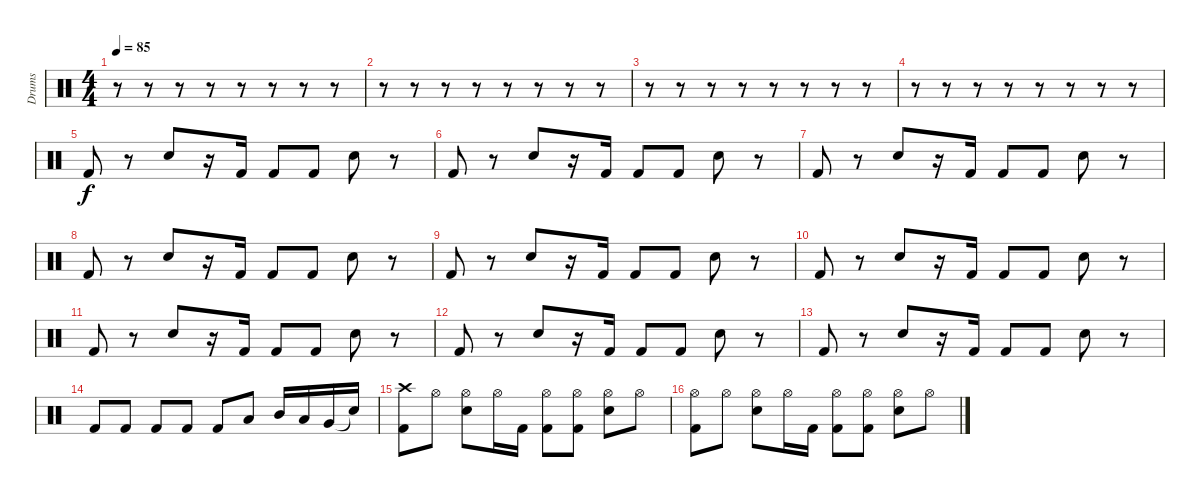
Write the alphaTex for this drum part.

\track ("Drums" "Drums") {instrument percussion}
\staff {score}
\articulation defaults
\ts (4 4)
\tempo 85
\clef neutral
\ks c
r.8{dy f} r.8 r.8 r.8 r.8 r.8 r.8 r.8 |
r.8 r.8 r.8 r.8 r.8 r.8 r.8 r.8 |
r.8 r.8 r.8 r.8 r.8 r.8 r.8 r.8 |
r.8 r.8 r.8 r.8 r.8 r.8 r.8 r.8 |
"Kick (hit) 2".8 r.8 "Snare (hit) 2".8 r.16 "Kick (hit) 2".16 "Kick (hit) 2".8 "Kick (hit) 2".8 "Snare (hit) 2".8 r.8 |
"Kick (hit) 2".8 r.8 "Snare (hit) 2".8 r.16 "Kick (hit) 2".16 "Kick (hit) 2".8 "Kick (hit) 2".8 "Snare (hit) 2".8 r.8 |
"Kick (hit) 2".8 r.8 "Snare (hit) 2".8 r.16 "Kick (hit) 2".16 "Kick (hit) 2".8 "Kick (hit) 2".8 "Snare (hit) 2".8 r.8 |
"Kick (hit) 2".8 r.8 "Snare (hit) 2".8 r.16 "Kick (hit) 2".16 "Kick (hit) 2".8 "Kick (hit) 2".8 "Snare (hit) 2".8 r.8 |
"Kick (hit) 2".8 r.8 "Snare (hit) 2".8 r.16 "Kick (hit) 2".16 "Kick (hit) 2".8 "Kick (hit) 2".8 "Snare (hit) 2".8 r.8 |
"Kick (hit) 2".8 r.8 "Snare (hit) 2".8 r.16 "Kick (hit) 2".16 "Kick (hit) 2".8 "Kick (hit) 2".8 "Snare (hit) 2".8 r.8 |
"Kick (hit) 2".8 r.8 "Snare (hit) 2".8 r.16 "Kick (hit) 2".16 "Kick (hit) 2".8 "Kick (hit) 2".8 "Snare (hit) 2".8 r.8 |
"Kick (hit) 2".8 r.8 "Snare (hit) 2".8 r.16 "Kick (hit) 2".16 "Kick (hit) 2".8 "Kick (hit) 2".8 "Snare (hit) 2".8 r.8 |
"Kick (hit) 2".8 r.8 "Snare (hit) 2".8 r.16 "Kick (hit) 2".16 "Kick (hit) 2".8 "Kick (hit) 2".8 "Snare (hit) 2".8 r.8 |
"Kick (hit) 2".8 "Kick (hit) 2".8 "Kick (hit) 2".8 "Kick (hit) 2".8 "Kick (hit) 2".8 "Low Tom (hit)".8 "Mid Tom (hit)".16 "Low Tom (hit)".16 "Very Low Tom (hit)".16 "Snare (hit)"{t}.16 |
("Crash high (hit)" "Kick (hit) 2").8 "Hi-Hat (open)".8 ("Hi-Hat (open)" "Snare (hit) 2").8 "Hi-Hat (open)".16 "Kick (hit) 2".16 ("Hi-Hat (open)" "Kick (hit) 2").8 ("Hi-Hat (open)" "Kick (hit) 2").8 ("Hi-Hat (open)" "Snare (hit) 2").8 "Hi-Hat (open)".8 |
("Hi-Hat (open)" "Kick (hit) 2").8 "Hi-Hat (open)".8 ("Hi-Hat (open)" "Snare (hit) 2").8 "Hi-Hat (open)".16 "Kick (hit) 2".16 ("Hi-Hat (open)" "Kick (hit) 2").8 ("Hi-Hat (open)" "Kick (hit) 2").8 ("Hi-Hat (open)" "Snare (hit) 2").8 "Hi-Hat (open)".8
